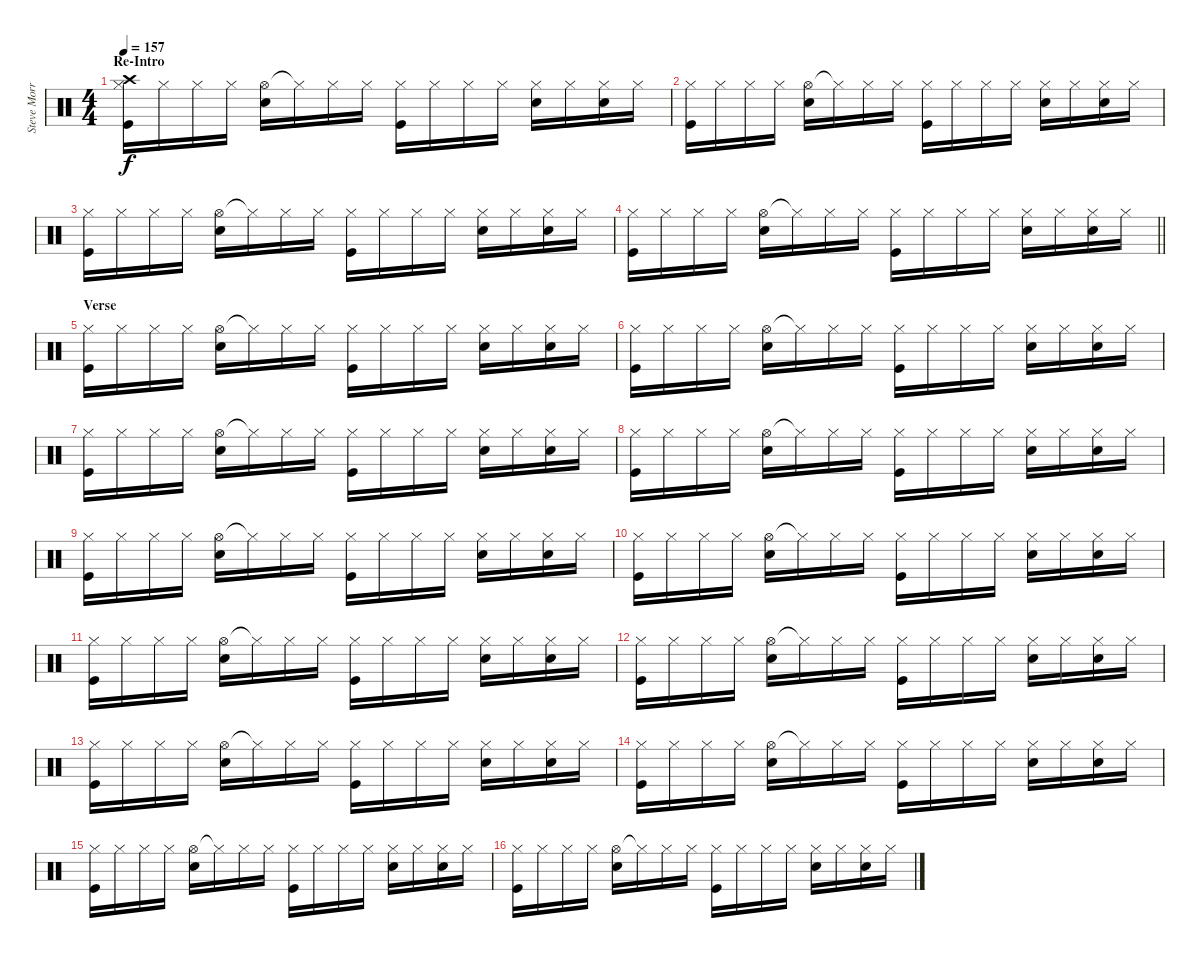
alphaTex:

\track ("Steve Morris" "Steve Morr") {instrument percussion}
\staff {score}
\articulation defaults
\ts (4 4)
\section ("" "Re-Intro")
\tempo 157
\clef neutral
\ks c
("Hi-Hat (closed)" "Kick (hit)" "Crash high (hit)").16{dy f} "Hi-Hat (closed)".16 "Hi-Hat (closed)".16 "Hi-Hat (closed)".16 ("Hi-Hat (open)" "Electric Snare (hit)").16 "Hi-Hat (closed)"{t}.16 "Hi-Hat (closed)".16 "Hi-Hat (closed)".16 ("Hi-Hat (closed)" "Kick (hit)").16 "Hi-Hat (closed)".16 "Hi-Hat (closed)".16 "Hi-Hat (closed)".16 ("Hi-Hat (closed)" "Electric Snare (hit)").16 "Hi-Hat (closed)".16 ("Hi-Hat (closed)" "Electric Snare (hit)").16 "Hi-Hat (closed)".16 |
("Hi-Hat (closed)" "Kick (hit)").16 "Hi-Hat (closed)".16 "Hi-Hat (closed)".16 "Hi-Hat (closed)".16 ("Hi-Hat (open)" "Electric Snare (hit)").16 "Hi-Hat (closed)"{t}.16 "Hi-Hat (closed)".16 "Hi-Hat (closed)".16 ("Hi-Hat (closed)" "Kick (hit)").16 "Hi-Hat (closed)".16 "Hi-Hat (closed)".16 "Hi-Hat (closed)".16 ("Hi-Hat (closed)" "Electric Snare (hit)").16 "Hi-Hat (closed)".16 ("Hi-Hat (closed)" "Electric Snare (hit)").16 "Hi-Hat (closed)".16 |
("Hi-Hat (closed)" "Kick (hit)").16 "Hi-Hat (closed)".16 "Hi-Hat (closed)".16 "Hi-Hat (closed)".16 ("Hi-Hat (open)" "Electric Snare (hit)").16 "Hi-Hat (closed)"{t}.16 "Hi-Hat (closed)".16 "Hi-Hat (closed)".16 ("Hi-Hat (closed)" "Kick (hit)").16 "Hi-Hat (closed)".16 "Hi-Hat (closed)".16 "Hi-Hat (closed)".16 ("Hi-Hat (closed)" "Electric Snare (hit)").16 "Hi-Hat (closed)".16 ("Hi-Hat (closed)" "Electric Snare (hit)").16 "Hi-Hat (closed)".16 |
\barLineRight lightlight
("Hi-Hat (closed)" "Kick (hit)").16 "Hi-Hat (closed)".16 "Hi-Hat (closed)".16 "Hi-Hat (closed)".16 ("Hi-Hat (open)" "Electric Snare (hit)").16 "Hi-Hat (closed)"{t}.16 "Hi-Hat (closed)".16 "Hi-Hat (closed)".16 ("Hi-Hat (closed)" "Kick (hit)").16 "Hi-Hat (closed)".16 "Hi-Hat (closed)".16 "Hi-Hat (closed)".16 ("Hi-Hat (closed)" "Electric Snare (hit)").16 "Hi-Hat (closed)".16 ("Hi-Hat (closed)" "Electric Snare (hit)").16 "Hi-Hat (closed)".16 |
\section ("" "Verse")
("Hi-Hat (closed)" "Kick (hit)").16 "Hi-Hat (closed)".16 "Hi-Hat (closed)".16 "Hi-Hat (closed)".16 ("Hi-Hat (open)" "Electric Snare (hit)").16 "Hi-Hat (closed)"{t}.16 "Hi-Hat (closed)".16 "Hi-Hat (closed)".16 ("Hi-Hat (closed)" "Kick (hit)").16 "Hi-Hat (closed)".16 "Hi-Hat (closed)".16 "Hi-Hat (closed)".16 ("Hi-Hat (closed)" "Electric Snare (hit)").16 "Hi-Hat (closed)".16 ("Hi-Hat (closed)" "Electric Snare (hit)").16 "Hi-Hat (closed)".16 |
("Hi-Hat (closed)" "Kick (hit)").16 "Hi-Hat (closed)".16 "Hi-Hat (closed)".16 "Hi-Hat (closed)".16 ("Hi-Hat (open)" "Electric Snare (hit)").16 "Hi-Hat (closed)"{t}.16 "Hi-Hat (closed)".16 "Hi-Hat (closed)".16 ("Hi-Hat (closed)" "Kick (hit)").16 "Hi-Hat (closed)".16 "Hi-Hat (closed)".16 "Hi-Hat (closed)".16 ("Hi-Hat (closed)" "Electric Snare (hit)").16 "Hi-Hat (closed)".16 ("Hi-Hat (closed)" "Electric Snare (hit)").16 "Hi-Hat (closed)".16 |
("Hi-Hat (closed)" "Kick (hit)").16 "Hi-Hat (closed)".16 "Hi-Hat (closed)".16 "Hi-Hat (closed)".16 ("Hi-Hat (open)" "Electric Snare (hit)").16 "Hi-Hat (closed)"{t}.16 "Hi-Hat (closed)".16 "Hi-Hat (closed)".16 ("Hi-Hat (closed)" "Kick (hit)").16 "Hi-Hat (closed)".16 "Hi-Hat (closed)".16 "Hi-Hat (closed)".16 ("Hi-Hat (closed)" "Electric Snare (hit)").16 "Hi-Hat (closed)".16 ("Hi-Hat (closed)" "Electric Snare (hit)").16 "Hi-Hat (closed)".16 |
("Hi-Hat (closed)" "Kick (hit)").16 "Hi-Hat (closed)".16 "Hi-Hat (closed)".16 "Hi-Hat (closed)".16 ("Hi-Hat (open)" "Electric Snare (hit)").16 "Hi-Hat (closed)"{t}.16 "Hi-Hat (closed)".16 "Hi-Hat (closed)".16 ("Hi-Hat (closed)" "Kick (hit)").16 "Hi-Hat (closed)".16 "Hi-Hat (closed)".16 "Hi-Hat (closed)".16 ("Hi-Hat (closed)" "Electric Snare (hit)").16 "Hi-Hat (closed)".16 ("Hi-Hat (closed)" "Electric Snare (hit)").16 "Hi-Hat (closed)".16 |
("Hi-Hat (closed)" "Kick (hit)").16 "Hi-Hat (closed)".16 "Hi-Hat (closed)".16 "Hi-Hat (closed)".16 ("Hi-Hat (open)" "Electric Snare (hit)").16 "Hi-Hat (closed)"{t}.16 "Hi-Hat (closed)".16 "Hi-Hat (closed)".16 ("Hi-Hat (closed)" "Kick (hit)").16 "Hi-Hat (closed)".16 "Hi-Hat (closed)".16 "Hi-Hat (closed)".16 ("Hi-Hat (closed)" "Electric Snare (hit)").16 "Hi-Hat (closed)".16 ("Hi-Hat (closed)" "Electric Snare (hit)").16 "Hi-Hat (closed)".16 |
("Hi-Hat (closed)" "Kick (hit)").16 "Hi-Hat (closed)".16 "Hi-Hat (closed)".16 "Hi-Hat (closed)".16 ("Hi-Hat (open)" "Electric Snare (hit)").16 "Hi-Hat (closed)"{t}.16 "Hi-Hat (closed)".16 "Hi-Hat (closed)".16 ("Hi-Hat (closed)" "Kick (hit)").16 "Hi-Hat (closed)".16 "Hi-Hat (closed)".16 "Hi-Hat (closed)".16 ("Hi-Hat (closed)" "Electric Snare (hit)").16 "Hi-Hat (closed)".16 ("Hi-Hat (closed)" "Electric Snare (hit)").16 "Hi-Hat (closed)".16 |
("Hi-Hat (closed)" "Kick (hit)").16 "Hi-Hat (closed)".16 "Hi-Hat (closed)".16 "Hi-Hat (closed)".16 ("Hi-Hat (open)" "Electric Snare (hit)").16 "Hi-Hat (closed)"{t}.16 "Hi-Hat (closed)".16 "Hi-Hat (closed)".16 ("Hi-Hat (closed)" "Kick (hit)").16 "Hi-Hat (closed)".16 "Hi-Hat (closed)".16 "Hi-Hat (closed)".16 ("Hi-Hat (closed)" "Electric Snare (hit)").16 "Hi-Hat (closed)".16 ("Hi-Hat (closed)" "Electric Snare (hit)").16 "Hi-Hat (closed)".16 |
("Hi-Hat (closed)" "Kick (hit)").16 "Hi-Hat (closed)".16 "Hi-Hat (closed)".16 "Hi-Hat (closed)".16 ("Hi-Hat (open)" "Electric Snare (hit)").16 "Hi-Hat (closed)"{t}.16 "Hi-Hat (closed)".16 "Hi-Hat (closed)".16 ("Hi-Hat (closed)" "Kick (hit)").16 "Hi-Hat (closed)".16 "Hi-Hat (closed)".16 "Hi-Hat (closed)".16 ("Hi-Hat (closed)" "Electric Snare (hit)").16 "Hi-Hat (closed)".16 ("Hi-Hat (closed)" "Electric Snare (hit)").16 "Hi-Hat (closed)".16 |
("Hi-Hat (closed)" "Kick (hit)").16 "Hi-Hat (closed)".16 "Hi-Hat (closed)".16 "Hi-Hat (closed)".16 ("Hi-Hat (open)" "Electric Snare (hit)").16 "Hi-Hat (closed)"{t}.16 "Hi-Hat (closed)".16 "Hi-Hat (closed)".16 ("Hi-Hat (closed)" "Kick (hit)").16 "Hi-Hat (closed)".16 "Hi-Hat (closed)".16 "Hi-Hat (closed)".16 ("Hi-Hat (closed)" "Electric Snare (hit)").16 "Hi-Hat (closed)".16 ("Hi-Hat (closed)" "Electric Snare (hit)").16 "Hi-Hat (closed)".16 |
("Hi-Hat (closed)" "Kick (hit)").16 "Hi-Hat (closed)".16 "Hi-Hat (closed)".16 "Hi-Hat (closed)".16 ("Hi-Hat (open)" "Electric Snare (hit)").16 "Hi-Hat (closed)"{t}.16 "Hi-Hat (closed)".16 "Hi-Hat (closed)".16 ("Hi-Hat (closed)" "Kick (hit)").16 "Hi-Hat (closed)".16 "Hi-Hat (closed)".16 "Hi-Hat (closed)".16 ("Hi-Hat (closed)" "Electric Snare (hit)").16 "Hi-Hat (closed)".16 ("Hi-Hat (closed)" "Electric Snare (hit)").16 "Hi-Hat (closed)".16 |
("Hi-Hat (closed)" "Kick (hit)").16 "Hi-Hat (closed)".16 "Hi-Hat (closed)".16 "Hi-Hat (closed)".16 ("Hi-Hat (open)" "Electric Snare (hit)").16 "Hi-Hat (closed)"{t}.16 "Hi-Hat (closed)".16 "Hi-Hat (closed)".16 ("Hi-Hat (closed)" "Kick (hit)").16 "Hi-Hat (closed)".16 "Hi-Hat (closed)".16 "Hi-Hat (closed)".16 ("Hi-Hat (closed)" "Electric Snare (hit)").16 "Hi-Hat (closed)".16 ("Hi-Hat (closed)" "Electric Snare (hit)").16 "Hi-Hat (closed)".16 |
("Hi-Hat (closed)" "Kick (hit)").16 "Hi-Hat (closed)".16 "Hi-Hat (closed)".16 "Hi-Hat (closed)".16 ("Hi-Hat (open)" "Electric Snare (hit)").16 "Hi-Hat (closed)"{t}.16 "Hi-Hat (closed)".16 "Hi-Hat (closed)".16 ("Hi-Hat (closed)" "Kick (hit)").16 "Hi-Hat (closed)".16 "Hi-Hat (closed)".16 "Hi-Hat (closed)".16 ("Hi-Hat (closed)" "Electric Snare (hit)").16 "Hi-Hat (closed)".16 ("Hi-Hat (closed)" "Electric Snare (hit)").16 "Hi-Hat (closed)".16
